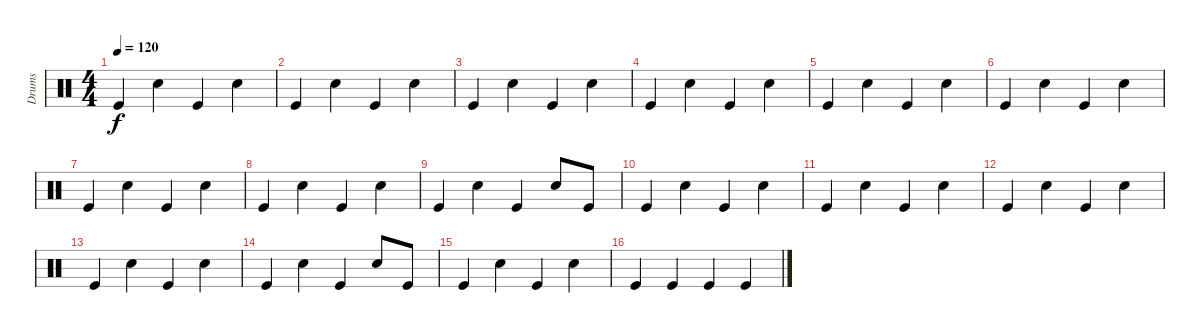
\track ("Drums" "Drums") {instrument percussion}
\staff {score}
\articulation defaults
\ts (4 4)
\tempo 120
\clef neutral
\ks c "Kick (hit)".4{dy f} "Snare (hit) 2".4 "Kick (hit)".4 "Snare (hit) 2".4
|
"Kick (hit)".4 "Snare (hit) 2".4 "Kick (hit)".4 "Snare (hit) 2".4 |
"Kick (hit)".4 "Snare (hit) 2".4 "Kick (hit)".4 "Snare (hit) 2".4 |
"Kick (hit)".4 "Snare (hit) 2".4 "Kick (hit)".4 "Snare (hit) 2".4 |
"Kick (hit)".4 "Snare (hit) 2".4 "Kick (hit)".4 "Snare (hit) 2".4 |
"Kick (hit)".4 "Snare (hit) 2".4 "Kick (hit)".4 "Snare (hit) 2".4 |
"Kick (hit)".4 "Snare (hit) 2".4 "Kick (hit)".4 "Snare (hit) 2".4 |
"Kick (hit)".4 "Snare (hit) 2".4 "Kick (hit)".4 "Snare (hit) 2".4 |
"Kick (hit)".4 "Snare (hit) 2".4 "Kick (hit)".4 "Snare (hit) 2".8 "Kick (hit)".8 |
"Kick (hit)".4 "Snare (hit) 2".4 "Kick (hit)".4 "Snare (hit) 2".4 |
"Kick (hit)".4 "Snare (hit) 2".4 "Kick (hit)".4 "Snare (hit) 2".4 |
"Kick (hit)".4 "Snare (hit) 2".4 "Kick (hit)".4 "Snare (hit) 2".4 |
"Kick (hit)".4 "Snare (hit) 2".4 "Kick (hit)".4 "Snare (hit) 2".4 |
"Kick (hit)".4 "Snare (hit) 2".4 "Kick (hit)".4 "Snare (hit) 2".8 "Kick (hit)".8 |
"Kick (hit)".4 "Snare (hit) 2".4 "Kick (hit)".4 "Snare (hit) 2".4 |
"Kick (hit)".4 "Kick (hit)".4 "Kick (hit)".4 "Kick (hit)".4
